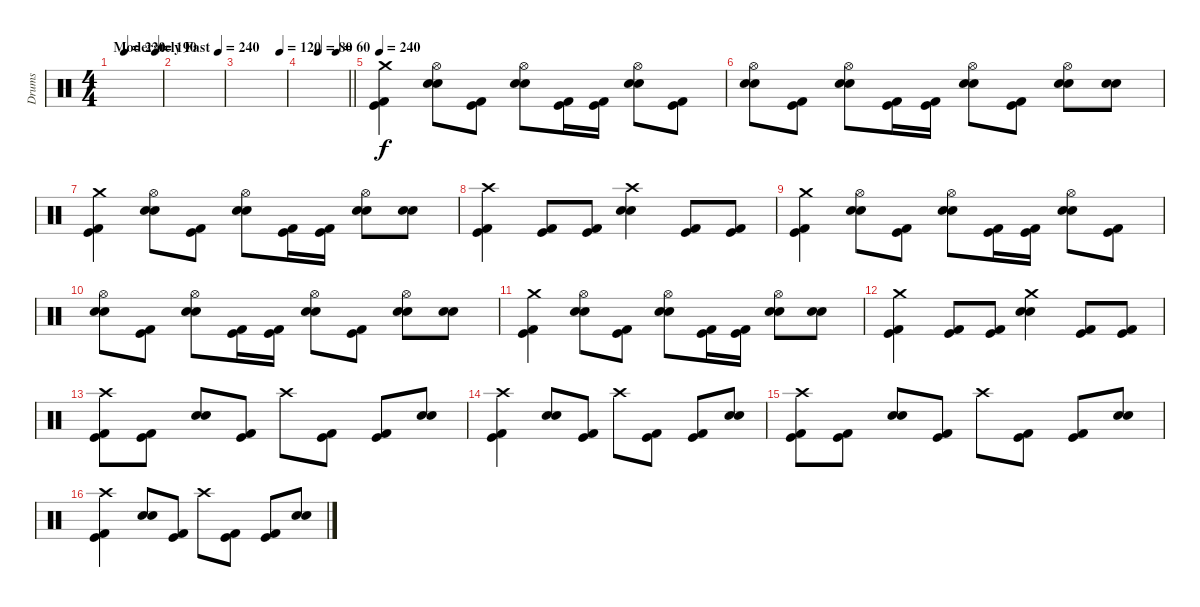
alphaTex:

\track ("Drums" "Drums") {instrument percussion bank 10}
\staff {score}
\articulation defaults
\ts (4 4)
\tempo (240 "Moderately Fast")
\tempo 120
\tempo (220 0.25)
\tempo (190 0.875)
\tempo (240 "Moderately Fast")
\clef neutral
\ks c
|
|
\tempo (120 0.875)
|
\tempo (80 0.375)
\tempo (60 0.75)
\barLineRight lightlight
|
\tempo 240
("Crash medium (hit)" "Kick (hit) 2" "Kick (hit)").4 ("Hi-Hat (open)" "Electric Snare (hit)" "Electric Snare (hit)").8 ("Kick (hit) 2" "Kick (hit)").8 ("Hi-Hat (open)" "Electric Snare (hit)" "Electric Snare (hit)").8 ("Kick (hit) 2" "Kick (hit)").16 ("Kick (hit) 2" "Kick (hit)").16 ("Hi-Hat (open)" "Electric Snare (hit)" "Electric Snare (hit)").8 ("Kick (hit) 2" "Kick (hit)").8 |
("Hi-Hat (open)" "Electric Snare (hit)" "Electric Snare (hit)").8 ("Kick (hit) 2" "Kick (hit)").8 ("Hi-Hat (open)" "Electric Snare (hit)" "Electric Snare (hit)").8 ("Kick (hit) 2" "Kick (hit)").16 ("Kick (hit) 2" "Kick (hit)").16 ("Hi-Hat (open)" "Electric Snare (hit)" "Electric Snare (hit)").8 ("Kick (hit) 2" "Kick (hit)").8 ("Hi-Hat (open)" "Electric Snare (hit)" "Electric Snare (hit)").8 ("Electric Snare (hit)" "Electric Snare (hit)").8 |
("Crash medium (hit)" "Kick (hit) 2" "Kick (hit)").4 ("Hi-Hat (open)" "Electric Snare (hit)" "Electric Snare (hit)").8 ("Kick (hit) 2" "Kick (hit)").8 ("Hi-Hat (open)" "Electric Snare (hit)" "Electric Snare (hit)").8 ("Kick (hit) 2" "Kick (hit)").16 ("Kick (hit) 2" "Kick (hit)").16 ("Hi-Hat (open)" "Electric Snare (hit)" "Electric Snare (hit)").8 ("Electric Snare (hit)" "Electric Snare (hit)").8 |
("Crash high (hit)" "Kick (hit) 2" "Kick (hit)").4 ("Kick (hit) 2" "Kick (hit)").8 ("Kick (hit) 2" "Kick (hit)").8 ("Crash high (hit)" "Electric Snare (hit)" "Electric Snare (hit)").4 ("Kick (hit) 2" "Kick (hit)").8 ("Kick (hit) 2" "Kick (hit)").8 |
("Crash medium (hit)" "Kick (hit) 2" "Kick (hit)").4 ("Hi-Hat (open)" "Electric Snare (hit)" "Electric Snare (hit)").8 ("Kick (hit) 2" "Kick (hit)").8 ("Hi-Hat (open)" "Electric Snare (hit)" "Electric Snare (hit)").8 ("Kick (hit) 2" "Kick (hit)").16 ("Kick (hit) 2" "Kick (hit)").16 ("Hi-Hat (open)" "Electric Snare (hit)" "Electric Snare (hit)").8 ("Kick (hit) 2" "Kick (hit)").8 |
("Hi-Hat (open)" "Electric Snare (hit)" "Electric Snare (hit)").8 ("Kick (hit) 2" "Kick (hit)").8 ("Hi-Hat (open)" "Electric Snare (hit)" "Electric Snare (hit)").8 ("Kick (hit) 2" "Kick (hit)").16 ("Kick (hit) 2" "Kick (hit)").16 ("Hi-Hat (open)" "Electric Snare (hit)" "Electric Snare (hit)").8 ("Kick (hit) 2" "Kick (hit)").8 ("Hi-Hat (open)" "Electric Snare (hit)" "Electric Snare (hit)").8 ("Electric Snare (hit)" "Electric Snare (hit)").8 |
("Crash medium (hit)" "Kick (hit) 2" "Kick (hit)").4 ("Hi-Hat (open)" "Electric Snare (hit)" "Electric Snare (hit)").8 ("Kick (hit) 2" "Kick (hit)").8 ("Hi-Hat (open)" "Electric Snare (hit)" "Electric Snare (hit)").8 ("Kick (hit) 2" "Kick (hit)").16 ("Kick (hit) 2" "Kick (hit)").16 ("Hi-Hat (open)" "Electric Snare (hit)" "Electric Snare (hit)").8 ("Electric Snare (hit)" "Electric Snare (hit)").8 |
("Crash medium (hit)" "Kick (hit) 2" "Kick (hit)").4 ("Kick (hit) 2" "Kick (hit)").8 ("Kick (hit) 2" "Kick (hit)").8 ("Crash medium (hit)" "Electric Snare (hit)" "Electric Snare (hit)").4 ("Kick (hit) 2" "Kick (hit)").8 ("Kick (hit) 2" "Kick (hit)").8 |
("Crash high (hit)" "Kick (hit) 2" "Kick (hit)").8 ("Kick (hit) 2" "Kick (hit)").8 ("Electric Snare (hit)" "Electric Snare (hit)").8 ("Kick (hit) 2" "Kick (hit)").8 "Crash high (hit)".8 ("Kick (hit) 2" "Kick (hit)").8 ("Kick (hit) 2" "Kick (hit)").8 ("Electric Snare (hit)" "Electric Snare (hit)").8 |
("Crash high (hit)" "Kick (hit) 2" "Kick (hit)").4 ("Electric Snare (hit)" "Electric Snare (hit)").8 ("Kick (hit) 2" "Kick (hit)").8 "Crash high (hit)".8 ("Kick (hit) 2" "Kick (hit)").8 ("Kick (hit) 2" "Kick (hit)").8 ("Electric Snare (hit)" "Electric Snare (hit)").8 |
("Crash high (hit)" "Kick (hit) 2" "Kick (hit)").8 ("Kick (hit) 2" "Kick (hit)").8 ("Electric Snare (hit)" "Electric Snare (hit)").8 ("Kick (hit) 2" "Kick (hit)").8 "Crash high (hit)".8 ("Kick (hit) 2" "Kick (hit)").8 ("Kick (hit) 2" "Kick (hit)").8 ("Electric Snare (hit)" "Electric Snare (hit)").8 |
("Crash high (hit)" "Kick (hit) 2" "Kick (hit)").4 ("Electric Snare (hit)" "Electric Snare (hit)").8 ("Kick (hit) 2" "Kick (hit)").8 "Crash high (hit)".8 ("Kick (hit) 2" "Kick (hit)").8 ("Kick (hit) 2" "Kick (hit)").8 ("Electric Snare (hit)" "Electric Snare (hit)").8
